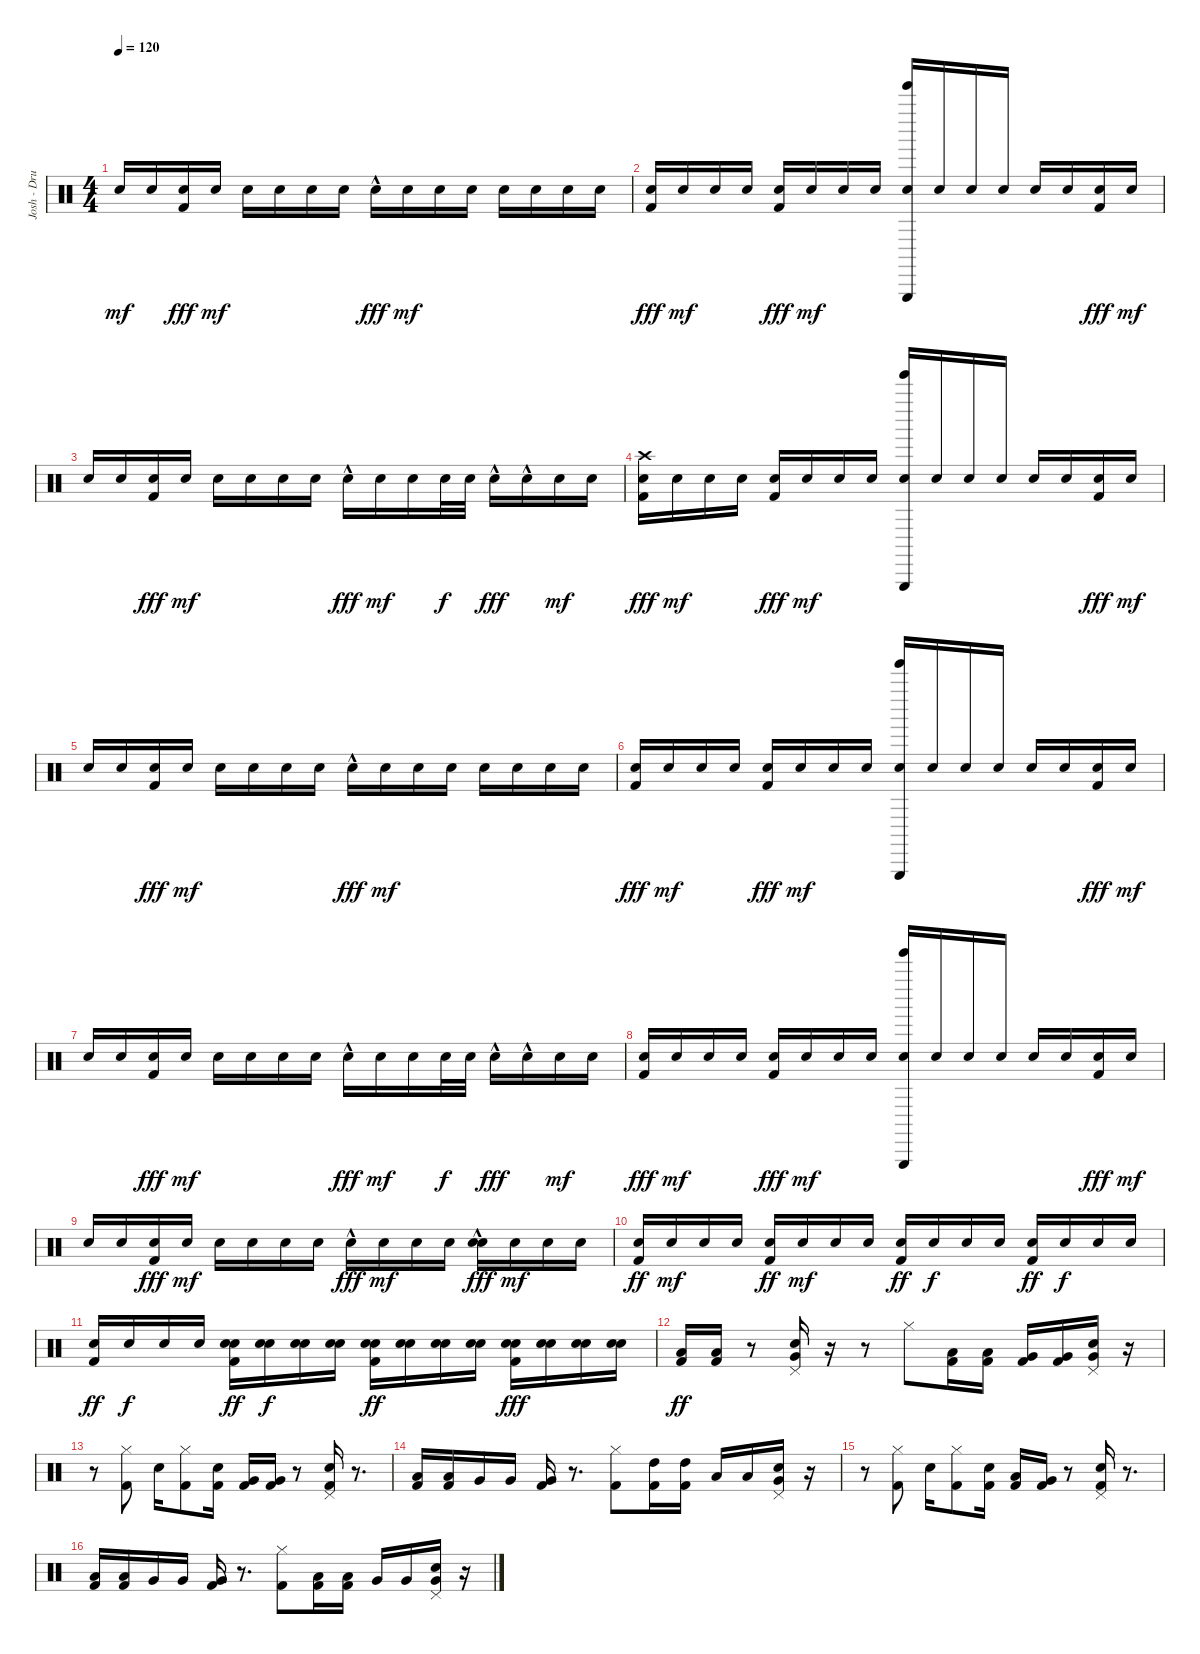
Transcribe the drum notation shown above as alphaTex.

\track ("Josh - Drums" "Josh - Dru") {instrument percussion}
\staff {score}
\articulation defaults
\ts (4 4)
\tempo 120
\clef neutral
\ks c "Electric Snare (hit)".16{dy mf} "Electric Snare (hit)".16
("Electric Snare (hit)" "Kick (hit) 2").16{dy fff} "Electric Snare (hit)".16{dy mf} "Electric Snare (hit)".16 "Electric Snare (hit)".16 "Electric Snare (hit)".16 "Electric Snare (hit)".16 "Snare (hit) 2"{hac}.16{dy fff} "Electric Snare (hit)".16{dy mf} "Electric Snare (hit)".16 "Electric Snare (hit)".16 "Electric Snare (hit)".16 "Electric Snare (hit)".16 "Electric Snare (hit)".16 "Electric Snare (hit)".16 |
("Electric Snare (hit)" "Kick (hit) 2").16{dy fff} "Electric Snare (hit)".16{dy mf} "Electric Snare (hit)".16 "Electric Snare (hit)".16 ("Electric Snare (hit)" "Kick (hit) 2").16{dy fff} "Electric Snare (hit)".16{dy mf} "Electric Snare (hit)".16 "Electric Snare (hit)".16 ("Electric Snare (hit)" "Tinkle Bell (hit)" "Triangle (hit)").16 "Electric Snare (hit)".16 "Electric Snare (hit)".16 "Electric Snare (hit)".16 "Electric Snare (hit)".16 "Electric Snare (hit)".16 ("Electric Snare (hit)" "Kick (hit) 2").16{dy fff} "Electric Snare (hit)".16{dy mf} |
"Electric Snare (hit)".16 "Electric Snare (hit)".16 ("Electric Snare (hit)" "Kick (hit) 2").16{dy fff} "Electric Snare (hit)".16{dy mf} "Electric Snare (hit)".16 "Electric Snare (hit)".16 "Electric Snare (hit)".16 "Electric Snare (hit)".16 "Snare (hit) 2"{hac}.16{dy fff} "Electric Snare (hit)".16{dy mf} "Electric Snare (hit)".16 "Snare (hit) 2".32{dy f} "Snare (hit) 2".32 "Snare (hit) 2"{hac}.16{dy fff} "Snare (hit) 2"{hac}.16 "Electric Snare (hit)".16{dy mf} "Electric Snare (hit)".16 |
("Crash high (hit)" "Electric Snare (hit)" "Kick (hit) 2").16{dy fff} "Electric Snare (hit)".16{dy mf} "Electric Snare (hit)".16 "Electric Snare (hit)".16 ("Electric Snare (hit)" "Kick (hit) 2").16{dy fff} "Electric Snare (hit)".16{dy mf} "Electric Snare (hit)".16 "Electric Snare (hit)".16 ("Electric Snare (hit)" "Tinkle Bell (hit)" "Triangle (hit)").16 "Electric Snare (hit)".16 "Electric Snare (hit)".16 "Electric Snare (hit)".16 "Electric Snare (hit)".16 "Electric Snare (hit)".16 ("Electric Snare (hit)" "Kick (hit) 2").16{dy fff} "Electric Snare (hit)".16{dy mf} |
"Electric Snare (hit)".16 "Electric Snare (hit)".16 ("Electric Snare (hit)" "Kick (hit) 2").16{dy fff} "Electric Snare (hit)".16{dy mf} "Electric Snare (hit)".16 "Electric Snare (hit)".16 "Electric Snare (hit)".16 "Electric Snare (hit)".16 "Snare (hit) 2"{hac}.16{dy fff} "Electric Snare (hit)".16{dy mf} "Electric Snare (hit)".16 "Electric Snare (hit)".16 "Electric Snare (hit)".16 "Electric Snare (hit)".16 "Electric Snare (hit)".16 "Electric Snare (hit)".16 |
("Electric Snare (hit)" "Kick (hit) 2").16{dy fff} "Electric Snare (hit)".16{dy mf} "Electric Snare (hit)".16 "Electric Snare (hit)".16 ("Electric Snare (hit)" "Kick (hit) 2").16{dy fff} "Electric Snare (hit)".16{dy mf} "Electric Snare (hit)".16 "Electric Snare (hit)".16 ("Electric Snare (hit)" "Tinkle Bell (hit)" "Triangle (hit)").16 "Electric Snare (hit)".16 "Electric Snare (hit)".16 "Electric Snare (hit)".16 "Electric Snare (hit)".16 "Electric Snare (hit)".16 ("Electric Snare (hit)" "Kick (hit) 2").16{dy fff} "Electric Snare (hit)".16{dy mf} |
"Electric Snare (hit)".16 "Electric Snare (hit)".16 ("Electric Snare (hit)" "Kick (hit) 2").16{dy fff} "Electric Snare (hit)".16{dy mf} "Electric Snare (hit)".16 "Electric Snare (hit)".16 "Electric Snare (hit)".16 "Electric Snare (hit)".16 "Snare (hit) 2"{hac}.16{dy fff} "Electric Snare (hit)".16{dy mf} "Electric Snare (hit)".16 "Snare (hit) 2".32{dy f} "Snare (hit) 2".32 "Snare (hit) 2"{hac}.16{dy fff} "Snare (hit) 2"{hac}.16 "Electric Snare (hit)".16{dy mf} "Electric Snare (hit)".16 |
("Electric Snare (hit)" "Kick (hit) 2").16{dy fff} "Electric Snare (hit)".16{dy mf} "Electric Snare (hit)".16 "Electric Snare (hit)".16 ("Electric Snare (hit)" "Kick (hit) 2").16{dy fff} "Electric Snare (hit)".16{dy mf} "Electric Snare (hit)".16 "Electric Snare (hit)".16 ("Electric Snare (hit)" "Tinkle Bell (hit)" "Triangle (hit)").16 "Electric Snare (hit)".16 "Electric Snare (hit)".16 "Electric Snare (hit)".16 "Electric Snare (hit)".16 "Electric Snare (hit)".16 ("Electric Snare (hit)" "Kick (hit) 2").16{dy fff} "Electric Snare (hit)".16{dy mf} |
"Electric Snare (hit)".16 "Electric Snare (hit)".16 ("Electric Snare (hit)" "Kick (hit) 2").16{dy fff} "Electric Snare (hit)".16{dy mf} "Electric Snare (hit)".16 "Electric Snare (hit)".16 "Electric Snare (hit)".16 "Electric Snare (hit)".16 "Snare (hit) 2"{hac}.16{dy fff} "Electric Snare (hit)".16{dy mf} "Electric Snare (hit)".16 "Electric Snare (hit)".16 ("Electric Snare (hit)" "Snare (hit) 2"{hac}).16{dy fff} "Electric Snare (hit)".16{dy mf} "Electric Snare (hit)".16 "Electric Snare (hit)".16 |
("Electric Snare (hit)" "Kick (hit) 2").16{dy ff} "Electric Snare (hit)".16{dy mf} "Electric Snare (hit)".16 "Electric Snare (hit)".16 ("Electric Snare (hit)" "Kick (hit) 2").16{dy ff} "Electric Snare (hit)".16{dy mf} "Electric Snare (hit)".16 "Electric Snare (hit)".16 ("Electric Snare (hit)" "Kick (hit) 2").16{dy ff} "Electric Snare (hit)".16{dy f} "Electric Snare (hit)".16 "Electric Snare (hit)".16 ("Electric Snare (hit)" "Kick (hit) 2").16{dy ff} "Electric Snare (hit)".16{dy f} "Electric Snare (hit)".16 "Electric Snare (hit)".16 |
("Electric Snare (hit)" "Kick (hit) 2").16{dy ff} "Electric Snare (hit)".16{dy f} "Electric Snare (hit)".16 "Electric Snare (hit)".16 ("Electric Snare (hit)" "Kick (hit) 2" "Snare (hit) 2").16{dy ff} ("Electric Snare (hit)" "Snare (hit) 2").16{dy f} ("Electric Snare (hit)" "Snare (hit) 2").16 ("Electric Snare (hit)" "Snare (hit) 2").16 ("Electric Snare (hit)" "Kick (hit) 2" "Snare (hit) 2").16{dy ff} ("Electric Snare (hit)" "Snare (hit) 2").16 ("Electric Snare (hit)" "Snare (hit) 2").16 ("Electric Snare (hit)" "Snare (hit) 2").16 ("Electric Snare (hit)" "Kick (hit) 2" "Snare (hit) 2").16{dy fff} ("Electric Snare (hit)" "Snare (hit) 2").16 ("Electric Snare (hit)" "Snare (hit) 2").16 ("Electric Snare (hit)" "Snare (hit) 2").16 |
("Low Tom (hit)" "Kick (hit) 2").16{dy ff} ("Low Tom (hit)" "Kick (hit) 2").16 r.8 ("Pedal Hi-Hat (hit)" "Very Low Tom (hit)" "Snare (hit) 2").16 r.16 r.8 "Hi-Hat (closed)".8 ("Low Tom (hit)" "Kick (hit) 2").16 ("Low Tom (hit)" "Kick (hit) 2").16 ("Very Low Tom (hit)" "Kick (hit) 2").16 ("Very Low Tom (hit)" "Kick (hit) 2").16 ("Pedal Hi-Hat (hit)" "Very Low Tom (hit)" "Snare (hit) 2").16 r.16 |
r.8 ("Hi-Hat (closed)" "Kick (hit) 2").8 "Electric Snare (hit)".16 ("Hi-Hat (closed)" "Kick (hit) 2").8 ("Electric Snare (hit)" "Kick (hit) 2").16 ("Very Low Tom (hit)" "Kick (hit) 2").16 ("Very Low Tom (hit)" "Kick (hit) 2").16 r.8 ("Pedal Hi-Hat (hit)" "Snare (hit) 2" "Kick (hit) 2").16 r.8{d} |
("Low Tom (hit)" "Kick (hit) 2").16 ("Low Tom (hit)" "Kick (hit) 2").16 "Very Low Tom (hit)".16 "Very Low Tom (hit)".16 ("Very Low Tom (hit)" "Kick (hit) 2").16 r.8{d} ("Hi-Hat (closed)" "Kick (hit) 2").8 ("High Tom (hit)" "Kick (hit) 2").16 ("High Tom (hit)" "Kick (hit) 2").16 "Low Tom (hit)".16 "Low Tom (hit)".16 ("Pedal Hi-Hat (hit)" "Very Low Tom (hit)" "Snare (hit) 2").16 r.16 |
r.8 ("Hi-Hat (closed)" "Kick (hit) 2").8 "Electric Snare (hit)".16 ("Hi-Hat (closed)" "Kick (hit) 2").8 ("Electric Snare (hit)" "Kick (hit) 2").16 ("Low Tom (hit)" "Kick (hit) 2").16 ("Very Low Tom (hit)" "Kick (hit) 2").16 r.8 ("Pedal Hi-Hat (hit)" "Snare (hit) 2" "Kick (hit) 2").16 r.8{d} |
("Low Tom (hit)" "Kick (hit) 2").16 ("Low Tom (hit)" "Kick (hit) 2").16 "Very Low Tom (hit)".16 "Very Low Tom (hit)".16 ("Very Low Tom (hit)" "Kick (hit) 2").16 r.8{d} ("Hi-Hat (closed)" "Kick (hit) 2").8 ("Low Tom (hit)" "Kick (hit) 2").16 ("Low Tom (hit)" "Kick (hit) 2").16 "Very Low Tom (hit)".16 "Very Low Tom (hit)".16 ("Pedal Hi-Hat (hit)" "Very Low Tom (hit)" "Snare (hit) 2").16 r.16
